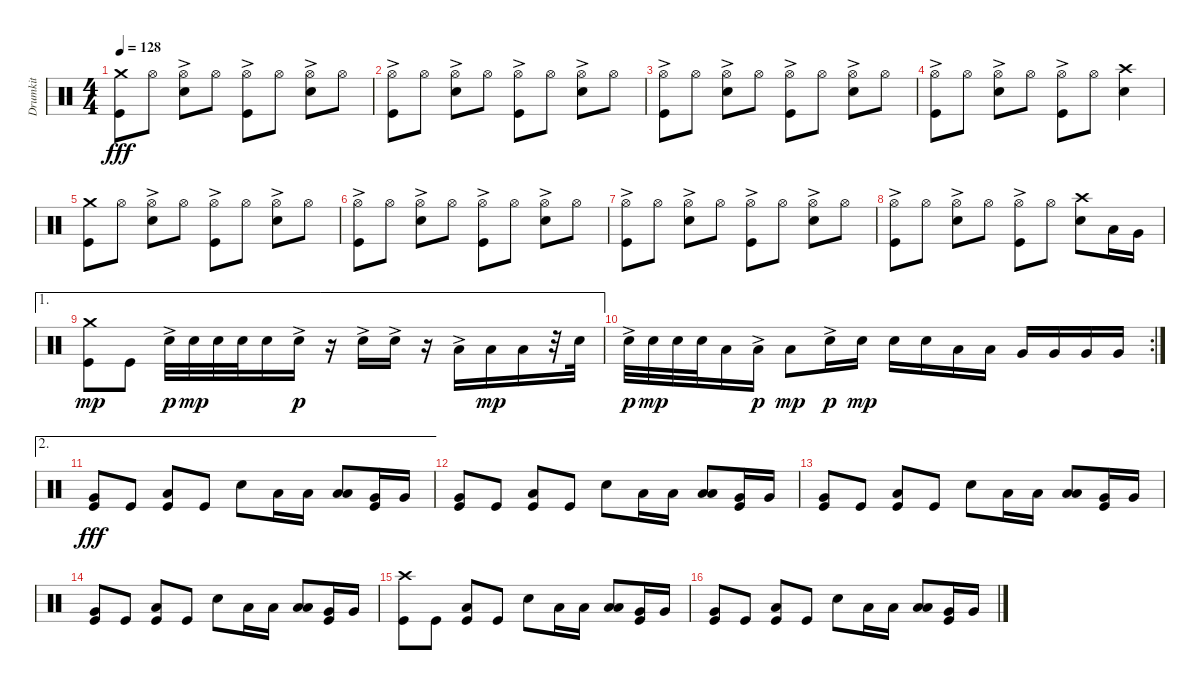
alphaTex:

\track ("Drumkit" "Drumkit") {instrument percussion}
\staff {score}
\articulation defaults
\ts (4 4)
\tempo 128
\clef neutral
\ks c
("Kick (hit)" "Crash medium (hit)").8{dy fff} "Hi-Hat (open)".8 ("Snare (hit) 2" "Hi-Hat (open)"{ac}).8 "Hi-Hat (open)".8 ("Kick (hit)" "Hi-Hat (open)"{ac}).8 "Hi-Hat (open)".8 ("Snare (hit) 2" "Hi-Hat (open)"{ac}).8 "Hi-Hat (open)".8 |
("Kick (hit)" "Hi-Hat (open)"{ac}).8 "Hi-Hat (open)".8 ("Snare (hit) 2" "Hi-Hat (open)"{ac}).8 "Hi-Hat (open)".8 ("Kick (hit)" "Hi-Hat (open)"{ac}).8 "Hi-Hat (open)".8 ("Snare (hit) 2" "Hi-Hat (open)"{ac}).8 "Hi-Hat (open)".8 |
("Kick (hit)" "Hi-Hat (open)"{ac}).8 "Hi-Hat (open)".8 ("Snare (hit) 2" "Hi-Hat (open)"{ac}).8 "Hi-Hat (open)".8 ("Kick (hit)" "Hi-Hat (open)"{ac}).8 "Hi-Hat (open)".8 ("Snare (hit) 2" "Hi-Hat (open)"{ac}).8 "Hi-Hat (open)".8 |
("Kick (hit)" "Hi-Hat (open)"{ac}).8 "Hi-Hat (open)".8 ("Snare (hit) 2" "Hi-Hat (open)"{ac}).8 "Hi-Hat (open)".8 ("Kick (hit)" "Hi-Hat (open)"{ac}).8 "Hi-Hat (open)".8 ("Snare (hit) 2" "Crash high (hit)").4 |
("Kick (hit)" "Crash medium (hit)").8 "Hi-Hat (open)".8 ("Snare (hit) 2" "Hi-Hat (open)"{ac}).8 "Hi-Hat (open)".8 ("Kick (hit)" "Hi-Hat (open)"{ac}).8 "Hi-Hat (open)".8 ("Snare (hit) 2" "Hi-Hat (open)"{ac}).8 "Hi-Hat (open)".8 |
("Kick (hit)" "Hi-Hat (open)"{ac}).8 "Hi-Hat (open)".8 ("Snare (hit) 2" "Hi-Hat (open)"{ac}).8 "Hi-Hat (open)".8 ("Kick (hit)" "Hi-Hat (open)"{ac}).8 "Hi-Hat (open)".8 ("Snare (hit) 2" "Hi-Hat (open)"{ac}).8 "Hi-Hat (open)".8 |
("Kick (hit)" "Hi-Hat (open)"{ac}).8 "Hi-Hat (open)".8 ("Snare (hit) 2" "Hi-Hat (open)"{ac}).8 "Hi-Hat (open)".8 ("Kick (hit)" "Hi-Hat (open)"{ac}).8 "Hi-Hat (open)".8 ("Snare (hit) 2" "Hi-Hat (open)"{ac}).8 "Hi-Hat (open)".8 |
("Kick (hit)" "Hi-Hat (open)"{ac}).8 "Hi-Hat (open)".8 ("Snare (hit) 2" "Hi-Hat (open)"{ac}).8 "Hi-Hat (open)".8 ("Kick (hit)" "Hi-Hat (open)"{ac}).8 "Hi-Hat (open)".8 ("Snare (hit) 2" "Crash high (hit)").8 "Low Tom (hit)".16 "Very Low Tom (hit)".16 |
\ae 1
("Crash medium (hit)" "Kick (hit)").8{dy mp} "Kick (hit)".8 "Snare (hit) 2"{ac}.32{dy p} "Snare (hit) 2".32{dy mp} "Snare (hit) 2".32 "Snare (hit) 2".32 "Snare (hit) 2".16 "Snare (hit) 2"{ac}.16{dy p} r.16 "Snare (hit) 2"{ac}.16 "Snare (hit) 2"{ac}.16 r.16 "Low Tom (hit)"{ac}.16 "Low Tom (hit)".16{dy mp} "Low Tom (hit)".16 r.32 "Snare (hit) 2".32 |
\rc 2 "Snare (hit) 2"{ac}.32{dy p} "Snare (hit) 2".32{dy mp} "Snare (hit) 2".32 "Snare (hit) 2".32 "Low Tom (hit)".16 "Low Tom (hit)"{ac}.16{dy p} "Low Tom (hit)".8{dy mp} "Snare (hit) 2"{ac}.16{dy p} "Snare (hit) 2".16{dy mp} "Snare (hit) 2".16 "Snare (hit) 2".16 "Low Tom (hit)".16 "Low Tom (hit)".16 "Very Low Tom (hit)".16 "Very Low Tom (hit)".16 "Very Low Tom (hit)".16 "Very Low Tom (hit)".16
|
\ae 2
("Kick (hit)" "Very Low Tom (hit)").8{dy fff} "Kick (hit)".8 ("Low Floor Tom (hit)" "Kick (hit)").8 "Kick (hit)".8 "Snare (hit) 2".8 "Low Tom (hit)".16 "Low Tom (hit)".16 ("Low Tom (hit)" "Low Floor Tom (hit)").8 ("Very Low Tom (hit)" "Kick (hit)").16 "Very Low Tom (hit)".16 |
("Kick (hit)" "Very Low Tom (hit)").8 "Kick (hit)".8 ("Low Floor Tom (hit)" "Kick (hit)").8 "Kick (hit)".8 "Snare (hit) 2".8 "Low Tom (hit)".16 "Low Tom (hit)".16 ("Low Tom (hit)" "Low Floor Tom (hit)").8 ("Very Low Tom (hit)" "Kick (hit)").16 "Very Low Tom (hit)".16 |
("Kick (hit)" "Very Low Tom (hit)").8 "Kick (hit)".8 ("Low Floor Tom (hit)" "Kick (hit)").8 "Kick (hit)".8 "Snare (hit) 2".8 "Low Tom (hit)".16 "Low Tom (hit)".16 ("Low Tom (hit)" "Low Floor Tom (hit)").8 ("Very Low Tom (hit)" "Kick (hit)").16 "Very Low Tom (hit)".16 |
("Kick (hit)" "Very Low Tom (hit)").8 "Kick (hit)".8 ("Low Floor Tom (hit)" "Kick (hit)").8 "Kick (hit)".8 "Snare (hit) 2".8 "Low Tom (hit)".16 "Low Tom (hit)".16 ("Low Tom (hit)" "Low Floor Tom (hit)").8 ("Very Low Tom (hit)" "Kick (hit)").16 "Very Low Tom (hit)".16 |
("Kick (hit)" "Crash high (hit)").8 "Kick (hit)".8 ("Low Floor Tom (hit)" "Kick (hit)").8 "Kick (hit)".8 "Snare (hit) 2".8 "Low Tom (hit)".16 "Low Tom (hit)".16 ("Low Tom (hit)" "Low Floor Tom (hit)").8 ("Very Low Tom (hit)" "Kick (hit)").16 "Very Low Tom (hit)".16 |
("Kick (hit)" "Very Low Tom (hit)").8 "Kick (hit)".8 ("Low Floor Tom (hit)" "Kick (hit)").8 "Kick (hit)".8 "Snare (hit) 2".8 "Low Tom (hit)".16 "Low Tom (hit)".16 ("Low Tom (hit)" "Low Floor Tom (hit)").8 ("Very Low Tom (hit)" "Kick (hit)").16 "Very Low Tom (hit)".16
